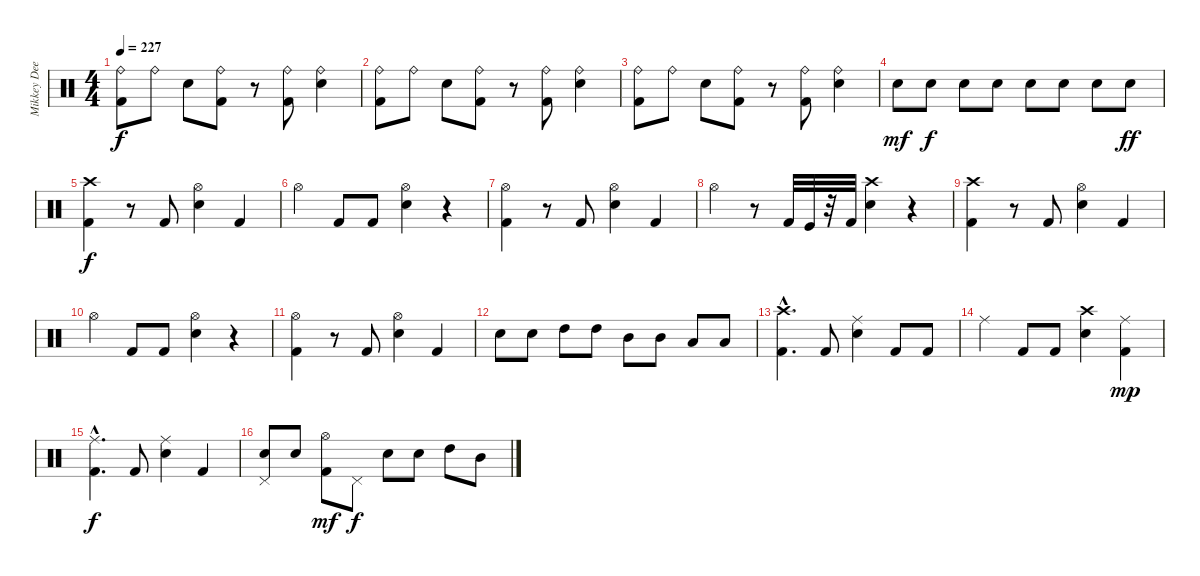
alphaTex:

\track ("Mikkey Dee" "Mikkey Dee") {instrument percussion}
\staff {score}
\articulation defaults
\ts (4 4)
\tempo 227
\clef neutral
\ks c
("Ride (bell)" "Kick (hit) 2").8{dy f} "Ride (bell)".8 "Electric Snare (hit)".8 ("Kick (hit) 2" "Ride (bell)").8 r.8 ("Ride (bell)" "Kick (hit) 2").8 ("Electric Snare (hit)" "Ride (bell)").4 |
("Ride (bell)" "Kick (hit) 2").8 "Ride (bell)".8 "Electric Snare (hit)".8 ("Ride (bell)" "Kick (hit) 2").8 r.8 ("Ride (bell)" "Kick (hit) 2").8 ("Ride (bell)" "Electric Snare (hit)").4 |
("Ride (bell)" "Kick (hit) 2").8 "Ride (bell)".8 "Electric Snare (hit)".8 ("Kick (hit) 2" "Ride (bell)").8 r.8 ("Ride (bell)" "Kick (hit) 2").8 ("Ride (bell)" "Electric Snare (hit)").4 |
"Electric Snare (hit)".8{dy mf} "Electric Snare (hit)".8{dy f} "Electric Snare (hit)".8 "Electric Snare (hit)".8 "Electric Snare (hit)".8 "Electric Snare (hit)".8 "Electric Snare (hit)".8 "Electric Snare (hit)".8{dy ff} |
("Kick (hit) 2" "Crash high (hit)").4{dy f} r.8 "Kick (hit) 2".8 ("Hi-Hat (open)" "Electric Snare (hit)").4 "Kick (hit) 2".4 |
"Hi-Hat (open)".4 "Kick (hit) 2".8 "Kick (hit) 2".8 ("Electric Snare (hit)" "Hi-Hat (open)").4 r.4 |
("Hi-Hat (open)" "Kick (hit) 2").4 r.8 "Kick (hit) 2".8 ("Hi-Hat (open)" "Electric Snare (hit)").4 "Kick (hit) 2".4 |
"Hi-Hat (open)".4 r.8 "Kick (hit) 2".32 "Kick (hit)".32 r.32 "Kick (hit) 2".32 ("Electric Snare (hit)" "Crash high (hit)").4 r.4 |
("Kick (hit) 2" "Crash high (hit)").4 r.8 "Kick (hit) 2".8 ("Hi-Hat (open)" "Electric Snare (hit)").4 "Kick (hit) 2".4 |
"Hi-Hat (open)".4 "Kick (hit) 2".8 "Kick (hit) 2".8 ("Electric Snare (hit)" "Hi-Hat (open)").4 r.4 |
("Kick (hit) 2" "Hi-Hat (open)").4 r.8 "Kick (hit) 2".8 ("Electric Snare (hit)" "Hi-Hat (open)").4 "Kick (hit) 2".4 |
"Electric Snare (hit)".8 "Electric Snare (hit)".8 "High Tom (hit)".8 "High Tom (hit)".8 "Mid Tom (hit)".8 "Mid Tom (hit)".8 "Low Tom (hit)".8 "Low Tom (hit)".8 |
("Crash high (hit)" "Kick (hit) 2"{hac}).4{d} "Kick (hit) 2".8 ("Electric Snare (hit)" "Ride (middle)").4 "Kick (hit) 2".8 "Kick (hit) 2".8 |
"Ride (middle)".4 "Kick (hit) 2".8 "Kick (hit) 2".8 ("Crash high (hit)" "Electric Snare (hit)").4 ("Ride (middle)" "Kick (hit) 2").4{dy mp} |
("Kick (hit) 2"{hac} "Ride (middle)").4{d dy f} "Kick (hit) 2".8 ("Electric Snare (hit)" "Ride (middle)").4 "Kick (hit) 2".4 |
("Electric Snare (hit)" "Pedal Hi-Hat (hit)").8 "Electric Snare (hit)".8 ("Hi-Hat (open)" "Kick (hit) 2").8{dy mf} "Pedal Hi-Hat (hit)".8{dy f} "Electric Snare (hit)".8 "Electric Snare (hit)".8 "High Tom (hit)".8 "Mid Tom (hit)".8
